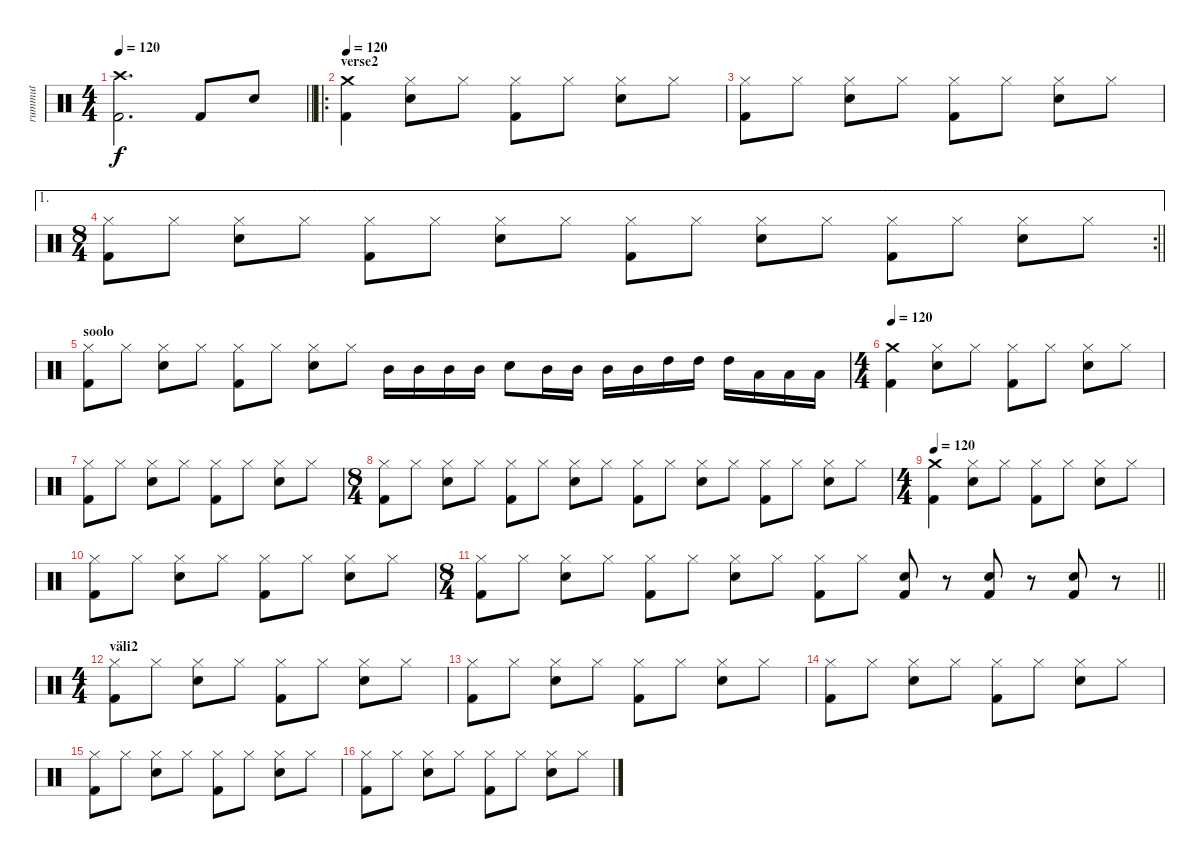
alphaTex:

\track ("rummut" "rummut") {instrument percussion}
\staff {score}
\articulation defaults
\ts (4 4)
\tempo 120
\clef neutral
\barLineRight lightlight
\ks c
("Kick (hit) 2" "Crash high (hit)").2{d dy f} "Kick (hit) 2".8 "Electric Snare (hit)".8 |
\ro
\section ("" "verse2")
\tempo 120
("Crash medium (hit)" "Kick (hit) 2").4 ("Hi-Hat (closed)" "Electric Snare (hit)").8 "Hi-Hat (closed)".8 ("Hi-Hat (closed)" "Kick (hit) 2").8 "Hi-Hat (closed)".8 ("Hi-Hat (closed)" "Electric Snare (hit)").8 "Hi-Hat (closed)".8 |
("Hi-Hat (closed)" "Kick (hit) 2").8 "Hi-Hat (closed)".8 ("Hi-Hat (closed)" "Electric Snare (hit)").8 "Hi-Hat (closed)".8 ("Hi-Hat (closed)" "Kick (hit) 2").8 "Hi-Hat (closed)".8 ("Hi-Hat (closed)" "Electric Snare (hit)").8 "Hi-Hat (closed)".8 |
\ae 1
\rc 2
\ts (8 4)
\barLineRight lightlight
("Hi-Hat (closed)" "Kick (hit) 2").8 "Hi-Hat (closed)".8 ("Hi-Hat (closed)" "Electric Snare (hit)").8 "Hi-Hat (closed)".8 ("Hi-Hat (closed)" "Kick (hit) 2").8 "Hi-Hat (closed)".8 ("Hi-Hat (closed)" "Electric Snare (hit)").8 "Hi-Hat (closed)".8 ("Hi-Hat (closed)" "Kick (hit) 2").8 "Hi-Hat (closed)".8 ("Hi-Hat (closed)" "Electric Snare (hit)").8 "Hi-Hat (closed)".8 ("Hi-Hat (closed)" "Kick (hit) 2").8 "Hi-Hat (closed)".8 ("Hi-Hat (closed)" "Electric Snare (hit)").8 "Hi-Hat (closed)".8 |
\section ("" "soolo")
("Hi-Hat (closed)" "Kick (hit) 2").8 "Hi-Hat (closed)".8 ("Hi-Hat (closed)" "Electric Snare (hit)").8 "Hi-Hat (closed)".8 ("Hi-Hat (closed)" "Kick (hit) 2").8 "Hi-Hat (closed)".8 ("Hi-Hat (closed)" "Electric Snare (hit)").8 "Hi-Hat (closed)".8 "Mid Tom (hit)".16 "Mid Tom (hit)".16 "Mid Tom (hit)".16 "Mid Tom (hit)".16 "Electric Snare (hit)".8 "Mid Tom (hit)".16 "Mid Tom (hit)".16 "Mid Tom (hit)".16 "Mid Tom (hit)".16 "High Tom (hit)".16 "High Tom (hit)".16 "High Tom (hit)".16 "Low Tom (hit)".16 "Low Tom (hit)".16 "Low Tom (hit)".16 |
\ts (4 4)
\tempo 120
("Crash medium (hit)" "Kick (hit) 2").4 ("Hi-Hat (closed)" "Electric Snare (hit)").8 "Hi-Hat (closed)".8 ("Hi-Hat (closed)" "Kick (hit) 2").8 "Hi-Hat (closed)".8 ("Hi-Hat (closed)" "Electric Snare (hit)").8 "Hi-Hat (closed)".8 |
("Hi-Hat (closed)" "Kick (hit) 2").8 "Hi-Hat (closed)".8 ("Hi-Hat (closed)" "Electric Snare (hit)").8 "Hi-Hat (closed)".8 ("Hi-Hat (closed)" "Kick (hit) 2").8 "Hi-Hat (closed)".8 ("Hi-Hat (closed)" "Electric Snare (hit)").8 "Hi-Hat (closed)".8 |
\ts (8 4)
("Hi-Hat (closed)" "Kick (hit) 2").8 "Hi-Hat (closed)".8 ("Hi-Hat (closed)" "Electric Snare (hit)").8 "Hi-Hat (closed)".8 ("Hi-Hat (closed)" "Kick (hit) 2").8 "Hi-Hat (closed)".8 ("Hi-Hat (closed)" "Electric Snare (hit)").8 "Hi-Hat (closed)".8 ("Hi-Hat (closed)" "Kick (hit) 2").8 "Hi-Hat (closed)".8 ("Hi-Hat (closed)" "Electric Snare (hit)").8 "Hi-Hat (closed)".8 ("Hi-Hat (closed)" "Kick (hit) 2").8 "Hi-Hat (closed)".8 ("Hi-Hat (closed)" "Electric Snare (hit)").8 "Hi-Hat (closed)".8 |
\ts (4 4)
\tempo 120
("Crash medium (hit)" "Kick (hit) 2").4 ("Hi-Hat (closed)" "Electric Snare (hit)").8 "Hi-Hat (closed)".8 ("Hi-Hat (closed)" "Kick (hit) 2").8 "Hi-Hat (closed)".8 ("Hi-Hat (closed)" "Electric Snare (hit)").8 "Hi-Hat (closed)".8 |
("Hi-Hat (closed)" "Kick (hit) 2").8 "Hi-Hat (closed)".8 ("Hi-Hat (closed)" "Electric Snare (hit)").8 "Hi-Hat (closed)".8 ("Hi-Hat (closed)" "Kick (hit) 2").8 "Hi-Hat (closed)".8 ("Hi-Hat (closed)" "Electric Snare (hit)").8 "Hi-Hat (closed)".8 |
\ts (8 4)
\barLineRight lightlight
("Hi-Hat (closed)" "Kick (hit) 2").8 "Hi-Hat (closed)".8 ("Hi-Hat (closed)" "Electric Snare (hit)").8 "Hi-Hat (closed)".8 ("Hi-Hat (closed)" "Kick (hit) 2").8 "Hi-Hat (closed)".8 ("Hi-Hat (closed)" "Electric Snare (hit)").8 "Hi-Hat (closed)".8 ("Hi-Hat (closed)" "Kick (hit) 2").8 "Hi-Hat (closed)".8 ("Kick (hit) 2" "Electric Snare (hit)").8 r.8 ("Electric Snare (hit)" "Kick (hit) 2").8 r.8 ("Kick (hit) 2" "Electric Snare (hit)").8 r.8 |
\ts (4 4)
\section ("" "väli2")
("Hi-Hat (closed)" "Kick (hit) 2").8 "Hi-Hat (closed)".8 ("Hi-Hat (closed)" "Electric Snare (hit)").8 "Hi-Hat (closed)".8 ("Hi-Hat (closed)" "Kick (hit) 2").8 "Hi-Hat (closed)".8 ("Hi-Hat (closed)" "Electric Snare (hit)").8 "Hi-Hat (closed)".8 |
("Hi-Hat (closed)" "Kick (hit) 2").8 "Hi-Hat (closed)".8 ("Hi-Hat (closed)" "Electric Snare (hit)").8 "Hi-Hat (closed)".8 ("Hi-Hat (closed)" "Kick (hit) 2").8 "Hi-Hat (closed)".8 ("Hi-Hat (closed)" "Electric Snare (hit)").8 "Hi-Hat (closed)".8 |
("Hi-Hat (closed)" "Kick (hit) 2").8 "Hi-Hat (closed)".8 ("Hi-Hat (closed)" "Electric Snare (hit)").8 "Hi-Hat (closed)".8 ("Hi-Hat (closed)" "Kick (hit) 2").8 "Hi-Hat (closed)".8 ("Hi-Hat (closed)" "Electric Snare (hit)").8 "Hi-Hat (closed)".8 |
("Hi-Hat (closed)" "Kick (hit) 2").8 "Hi-Hat (closed)".8 ("Hi-Hat (closed)" "Electric Snare (hit)").8 "Hi-Hat (closed)".8 ("Hi-Hat (closed)" "Kick (hit) 2").8 "Hi-Hat (closed)".8 ("Hi-Hat (closed)" "Electric Snare (hit)").8 "Hi-Hat (closed)".8 |
("Hi-Hat (closed)" "Kick (hit) 2").8 "Hi-Hat (closed)".8 ("Hi-Hat (closed)" "Electric Snare (hit)").8 "Hi-Hat (closed)".8 ("Hi-Hat (closed)" "Kick (hit) 2").8 "Hi-Hat (closed)".8 ("Hi-Hat (closed)" "Electric Snare (hit)").8 "Hi-Hat (closed)".8
